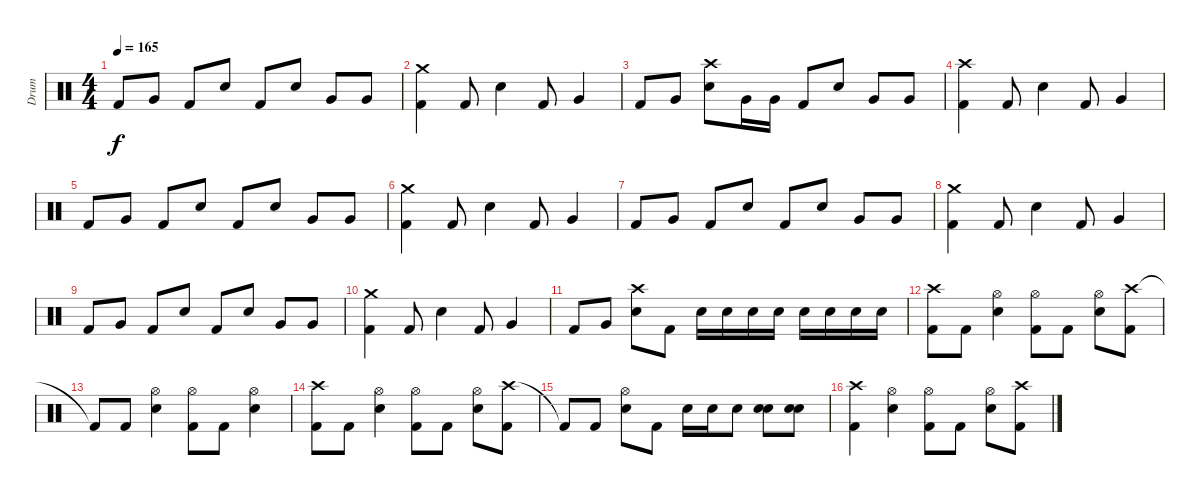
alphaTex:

\track ("Drum" "Drum") {instrument percussion}
\staff {score}
\articulation defaults
\ts (4 4)
\tempo 165
\clef neutral
\ks c "Kick (hit) 2".8{dy f} "Very Low Tom (hit)".8 "Kick (hit) 2".8 "Electric Snare (hit)".8 "Kick (hit) 2".8 "Electric Snare (hit)".8 "Very Low Tom (hit)".8 "Very Low Tom (hit)".8
|
("Crash medium (hit)" "Kick (hit) 2").4 "Kick (hit) 2".8 "Electric Snare (hit)".4 "Kick (hit) 2".8 "Very Low Tom (hit)".4 |
"Kick (hit) 2".8 "Very Low Tom (hit)".8 ("Crash high (hit)" "Electric Snare (hit)").8 "Very Low Tom (hit)".16 "Very Low Tom (hit)".16 "Kick (hit) 2".8 "Electric Snare (hit)".8 "Very Low Tom (hit)".8 "Very Low Tom (hit)".8 |
("Crash high (hit)" "Kick (hit) 2").4 "Kick (hit) 2".8 "Electric Snare (hit)".4 "Kick (hit) 2".8 "Very Low Tom (hit)".4 |
"Kick (hit) 2".8 "Very Low Tom (hit)".8 "Kick (hit) 2".8 "Electric Snare (hit)".8 "Kick (hit) 2".8 "Electric Snare (hit)".8 "Very Low Tom (hit)".8 "Very Low Tom (hit)".8 |
("Crash medium (hit)" "Kick (hit) 2").4 "Kick (hit) 2".8 "Electric Snare (hit)".4 "Kick (hit) 2".8 "Very Low Tom (hit)".4 |
"Kick (hit) 2".8 "Very Low Tom (hit)".8 "Kick (hit) 2".8 "Electric Snare (hit)".8 "Kick (hit) 2".8 "Electric Snare (hit)".8 "Very Low Tom (hit)".8 "Very Low Tom (hit)".8 |
("Crash medium (hit)" "Kick (hit) 2").4 "Kick (hit) 2".8 "Electric Snare (hit)".4 "Kick (hit) 2".8 "Very Low Tom (hit)".4 |
"Kick (hit) 2".8 "Very Low Tom (hit)".8 "Kick (hit) 2".8 "Electric Snare (hit)".8 "Kick (hit) 2".8 "Electric Snare (hit)".8 "Very Low Tom (hit)".8 "Very Low Tom (hit)".8 |
("Crash medium (hit)" "Kick (hit) 2").4 "Kick (hit) 2".8 "Electric Snare (hit)".4 "Kick (hit) 2".8 "Very Low Tom (hit)".4 |
"Kick (hit) 2".8 "Very Low Tom (hit)".8 ("Crash high (hit)" "Electric Snare (hit)").8 "Kick (hit) 2".8 "Electric Snare (hit)".16 "Electric Snare (hit)".16 "Electric Snare (hit)".16 "Electric Snare (hit)".16 "Electric Snare (hit)".16 "Electric Snare (hit)".16 "Electric Snare (hit)".16 "Electric Snare (hit)".16 |
("Crash high (hit)" "Kick (hit) 2").8 "Kick (hit) 2".8 ("Hi-Hat (open)" "Electric Snare (hit)").4 ("Hi-Hat (open)" "Kick (hit) 2").8 "Kick (hit) 2".8 ("Hi-Hat (open)" "Electric Snare (hit)").8 ("Crash high (hit)" "Kick (hit) 2").8 |
"Kick (hit) 2"{t}.8 "Kick (hit) 2".8 ("Hi-Hat (open)" "Electric Snare (hit)").4 ("Hi-Hat (open)" "Kick (hit) 2").8 "Kick (hit) 2".8 ("Hi-Hat (open)" "Electric Snare (hit)").4 |
("Crash high (hit)" "Kick (hit) 2").8 "Kick (hit) 2".8 ("Hi-Hat (open)" "Electric Snare (hit)").4 ("Hi-Hat (open)" "Kick (hit) 2").8 "Kick (hit) 2".8 ("Hi-Hat (open)" "Electric Snare (hit)").8 ("Crash high (hit)" "Kick (hit) 2").8 |
"Kick (hit) 2"{t}.8 "Kick (hit) 2".8 ("Hi-Hat (open)" "Electric Snare (hit)").8 "Kick (hit) 2".8 "Electric Snare (hit)".16 "Electric Snare (hit)".16 "Electric Snare (hit)".8 ("Electric Snare (hit)" "Electric Snare (hit)").8 ("Electric Snare (hit)" "Electric Snare (hit)").8 |
("Crash high (hit)" "Kick (hit) 2").4 ("Hi-Hat (open)" "Electric Snare (hit)").4 ("Hi-Hat (open)" "Kick (hit) 2").8 "Kick (hit) 2".8 ("Hi-Hat (open)" "Electric Snare (hit)").8 ("Crash high (hit)" "Kick (hit) 2").8
